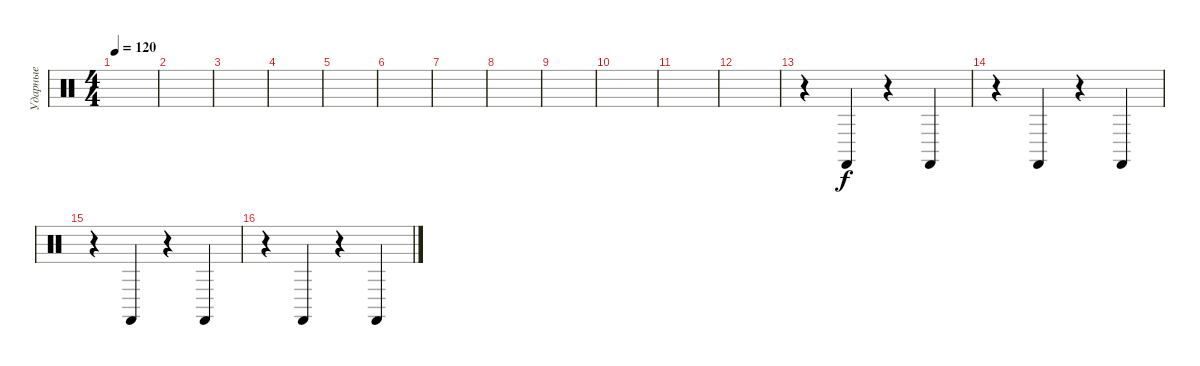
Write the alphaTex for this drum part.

\track ("Ударные" "Ударные") {instrument percussion}
\staff {score}
\articulation defaults
\ts (4 4)
\tempo 120
\clef neutral
\ks c
|
|
|
|
|
|
|
|
|
|
|
|
r.4 "Castanets (hit)".4 r.4 "Castanets (hit)".4 |
r.4 "Castanets (hit)".4 r.4 "Castanets (hit)".4 |
r.4 "Castanets (hit)".4 r.4 "Castanets (hit)".4 |
r.4 "Castanets (hit)".4 r.4 "Castanets (hit)".4
